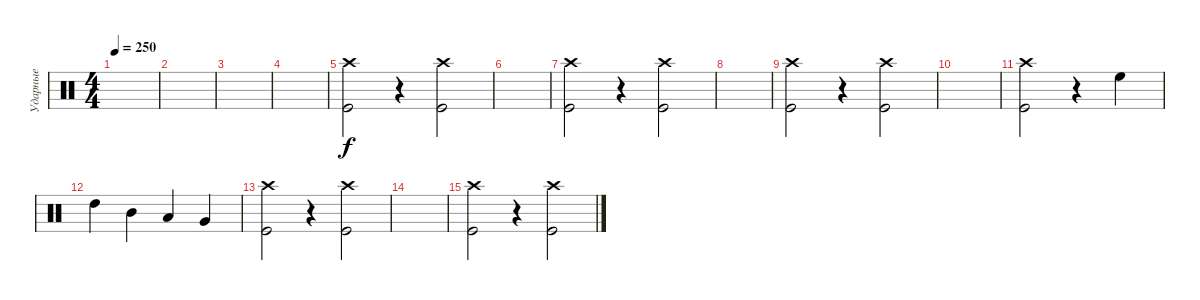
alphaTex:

\track ("Ударные" "Ударные") {instrument percussion}
\staff {score}
\articulation defaults
\ts (4 4)
\tempo 250
\clef neutral
\ks c
|
|
|
|
("Crash high (hit)" "Kick (hit)").2 r.4 ("Crash high (hit)" "Kick (hit)").2 |
|
("Crash high (hit)" "Kick (hit)").2 r.4 ("Crash high (hit)" "Kick (hit)").2 |
|
("Crash high (hit)" "Kick (hit)").2 r.4 ("Crash high (hit)" "Kick (hit)").2 |
|
("Kick (hit)" "Crash high (hit)").2 r.4 "High Floor Tom (hit)".4 |
"High Tom (hit)".4 "Mid Tom (hit)".4 "Low Tom (hit)".4 "Very Low Tom (hit)".4 |
("Crash high (hit)" "Kick (hit)").2 r.4 ("Crash high (hit)" "Kick (hit)").2 |
|
("Crash high (hit)" "Kick (hit)").2 r.4 ("Crash high (hit)" "Kick (hit)").2
